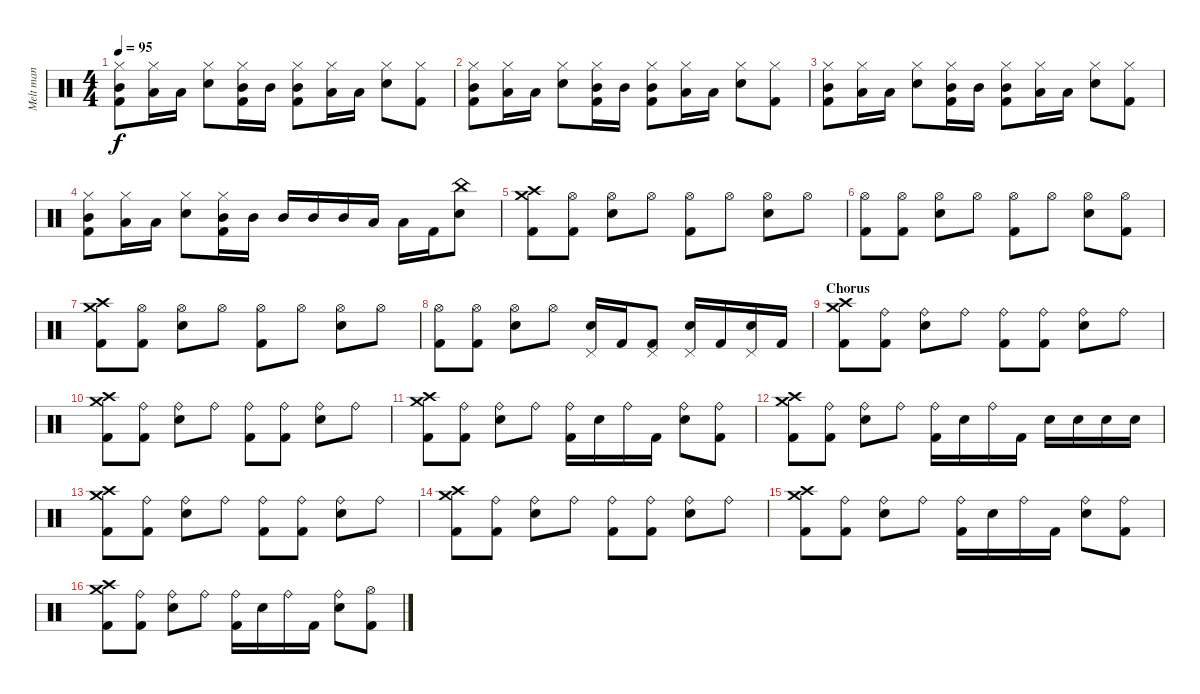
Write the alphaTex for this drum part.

\track ("Melt man" "Melt man") {instrument percussion}
\staff {score}
\articulation defaults
\ts (4 4)
\tempo 95
\clef neutral
\ks c
("Hi-Hat (closed)" "Mid Tom (hit)" "Kick (hit) 2").8{dy f} ("Hi-Hat (closed)" "Low Tom (hit)").16 "Low Tom (hit)".16 ("Hi-Hat (closed)" "Snare (hit) 2").8 ("Hi-Hat (closed)" "Mid Tom (hit)" "Kick (hit) 2").16 "Mid Tom (hit)".16 ("Hi-Hat (closed)" "Mid Tom (hit)" "Kick (hit) 2").8 ("Hi-Hat (closed)" "Low Tom (hit)").16 "Low Tom (hit)".16 ("Hi-Hat (closed)" "Snare (hit) 2").8 ("Hi-Hat (closed)" "Kick (hit) 2").8 |
("Hi-Hat (closed)" "Mid Tom (hit)" "Kick (hit) 2").8 ("Hi-Hat (closed)" "Low Tom (hit)").16 "Low Tom (hit)".16 ("Hi-Hat (closed)" "Snare (hit) 2").8 ("Hi-Hat (closed)" "Mid Tom (hit)" "Kick (hit) 2").16 "Mid Tom (hit)".16 ("Hi-Hat (closed)" "Mid Tom (hit)" "Kick (hit) 2").8 ("Hi-Hat (closed)" "Low Tom (hit)").16 "Low Tom (hit)".16 ("Hi-Hat (closed)" "Snare (hit) 2").8 ("Hi-Hat (closed)" "Kick (hit) 2").8 |
("Hi-Hat (closed)" "Mid Tom (hit)" "Kick (hit) 2").8 ("Hi-Hat (closed)" "Low Tom (hit)").16 "Low Tom (hit)".16 ("Hi-Hat (closed)" "Snare (hit) 2").8 ("Hi-Hat (closed)" "Mid Tom (hit)" "Kick (hit) 2").16 "Mid Tom (hit)".16 ("Hi-Hat (closed)" "Mid Tom (hit)" "Kick (hit) 2").8 ("Hi-Hat (closed)" "Low Tom (hit)").16 "Low Tom (hit)".16 ("Hi-Hat (closed)" "Snare (hit) 2").8 ("Hi-Hat (closed)" "Kick (hit) 2").8 |
("Hi-Hat (closed)" "Mid Tom (hit)" "Kick (hit) 2").8 ("Hi-Hat (closed)" "Low Tom (hit)").16 "Low Tom (hit)".16 ("Hi-Hat (closed)" "Snare (hit) 2").8 ("Hi-Hat (closed)" "Mid Tom (hit)" "Kick (hit) 2").16 "Mid Tom (hit)".16 "Mid Tom (hit)".16 "Mid Tom (hit)".16 "Mid Tom (hit)".16 "Low Tom (hit)".16 "Low Tom (hit)".16 "Kick (hit) 2".16 ("China (hit)" "Snare (hit) 2").8 |
("Crash medium (hit)" "Crash high (hit)" "Kick (hit) 2").8 ("Hi-Hat (open)" "Kick (hit) 2").8 ("Hi-Hat (open)" "Snare (hit) 2").8 "Hi-Hat (open)".8 ("Hi-Hat (open)" "Kick (hit) 2").8 "Hi-Hat (open)".8 ("Hi-Hat (open)" "Snare (hit) 2").8 "Hi-Hat (open)".8 |
("Hi-Hat (open)" "Kick (hit) 2").8 ("Hi-Hat (open)" "Kick (hit) 2").8 ("Hi-Hat (open)" "Snare (hit) 2").8 "Hi-Hat (open)".8 ("Hi-Hat (open)" "Kick (hit) 2").8 "Hi-Hat (open)".8 ("Hi-Hat (open)" "Snare (hit) 2").8 ("Hi-Hat (open)" "Kick (hit) 2").8 |
("Crash medium (hit)" "Crash high (hit)" "Kick (hit) 2").8 ("Hi-Hat (open)" "Kick (hit) 2").8 ("Hi-Hat (open)" "Snare (hit) 2").8 "Hi-Hat (open)".8 ("Hi-Hat (open)" "Kick (hit) 2").8 "Hi-Hat (open)".8 ("Hi-Hat (open)" "Snare (hit) 2").8 "Hi-Hat (open)".8 |
("Hi-Hat (open)" "Kick (hit) 2").8 ("Hi-Hat (open)" "Kick (hit) 2").8 ("Hi-Hat (open)" "Snare (hit) 2").8 "Hi-Hat (open)".8 ("Pedal Hi-Hat (hit)" "Snare (hit) 2").16 "Kick (hit) 2".16 ("Pedal Hi-Hat (hit)" "Kick (hit) 2").8 ("Pedal Hi-Hat (hit)" "Snare (hit) 2").16 "Kick (hit) 2".16 ("Pedal Hi-Hat (hit)" "Snare (hit) 2").16 "Kick (hit) 2".16 |
\section ("" "Chorus")
("Crash medium (hit)" "Crash high (hit)" "Kick (hit) 2").8 ("Ride (bell)" "Kick (hit) 2").8 ("Ride (bell)" "Snare (hit) 2").8 "Ride (bell)".8 ("Ride (bell)" "Kick (hit) 2").8 ("Ride (bell)" "Kick (hit) 2").8 ("Ride (bell)" "Snare (hit) 2").8 "Ride (bell)".8 |
("Crash medium (hit)" "Crash high (hit)" "Kick (hit) 2").8 ("Ride (bell)" "Kick (hit) 2").8 ("Ride (bell)" "Snare (hit) 2").8 "Ride (bell)".8 ("Ride (bell)" "Kick (hit) 2").8 ("Ride (bell)" "Kick (hit) 2").8 ("Ride (bell)" "Snare (hit) 2").8 "Ride (bell)".8 |
("Crash medium (hit)" "Crash high (hit)" "Kick (hit) 2").8 ("Ride (bell)" "Kick (hit) 2").8 ("Ride (bell)" "Snare (hit) 2").8 "Ride (bell)".8 ("Ride (bell)" "Kick (hit) 2").16 "Snare (hit) 2".16 "Ride (bell)".16 "Kick (hit) 2".16 ("Ride (bell)" "Snare (hit) 2").8 ("Ride (bell)" "Kick (hit) 2").8 |
("Crash medium (hit)" "Crash high (hit)" "Kick (hit) 2").8 ("Ride (bell)" "Kick (hit) 2").8 ("Ride (bell)" "Snare (hit) 2").8 "Ride (bell)".8 ("Ride (bell)" "Kick (hit) 2").16 "Snare (hit) 2".16 "Ride (bell)".16 "Kick (hit) 2".16 "Snare (hit) 2".16 "Snare (hit) 2".16 "Snare (hit) 2".16 "Snare (hit) 2".16 |
("Crash medium (hit)" "Crash high (hit)" "Kick (hit) 2").8 ("Ride (bell)" "Kick (hit) 2").8 ("Ride (bell)" "Snare (hit) 2").8 "Ride (bell)".8 ("Ride (bell)" "Kick (hit) 2").8 ("Ride (bell)" "Kick (hit) 2").8 ("Ride (bell)" "Snare (hit) 2").8 "Ride (bell)".8 |
("Crash medium (hit)" "Crash high (hit)" "Kick (hit) 2").8 ("Ride (bell)" "Kick (hit) 2").8 ("Ride (bell)" "Snare (hit) 2").8 "Ride (bell)".8 ("Ride (bell)" "Kick (hit) 2").8 ("Ride (bell)" "Kick (hit) 2").8 ("Ride (bell)" "Snare (hit) 2").8 "Ride (bell)".8 |
("Crash medium (hit)" "Crash high (hit)" "Kick (hit) 2").8 ("Ride (bell)" "Kick (hit) 2").8 ("Ride (bell)" "Snare (hit) 2").8 "Ride (bell)".8 ("Ride (bell)" "Kick (hit) 2").16 "Snare (hit) 2".16 "Ride (bell)".16 "Kick (hit) 2".16 ("Ride (bell)" "Snare (hit) 2").8 ("Ride (bell)" "Kick (hit) 2").8 |
("Crash medium (hit)" "Crash high (hit)" "Kick (hit) 2").8 ("Ride (bell)" "Kick (hit) 2").8 ("Ride (bell)" "Snare (hit) 2").8 "Ride (bell)".8 ("Ride (bell)" "Kick (hit) 2").16 "Snare (hit) 2".16 "Ride (bell)".16 "Kick (hit) 2".16 ("Ride (bell)" "Snare (hit) 2").8 ("Hi-Hat (open)" "Kick (hit) 2").8
